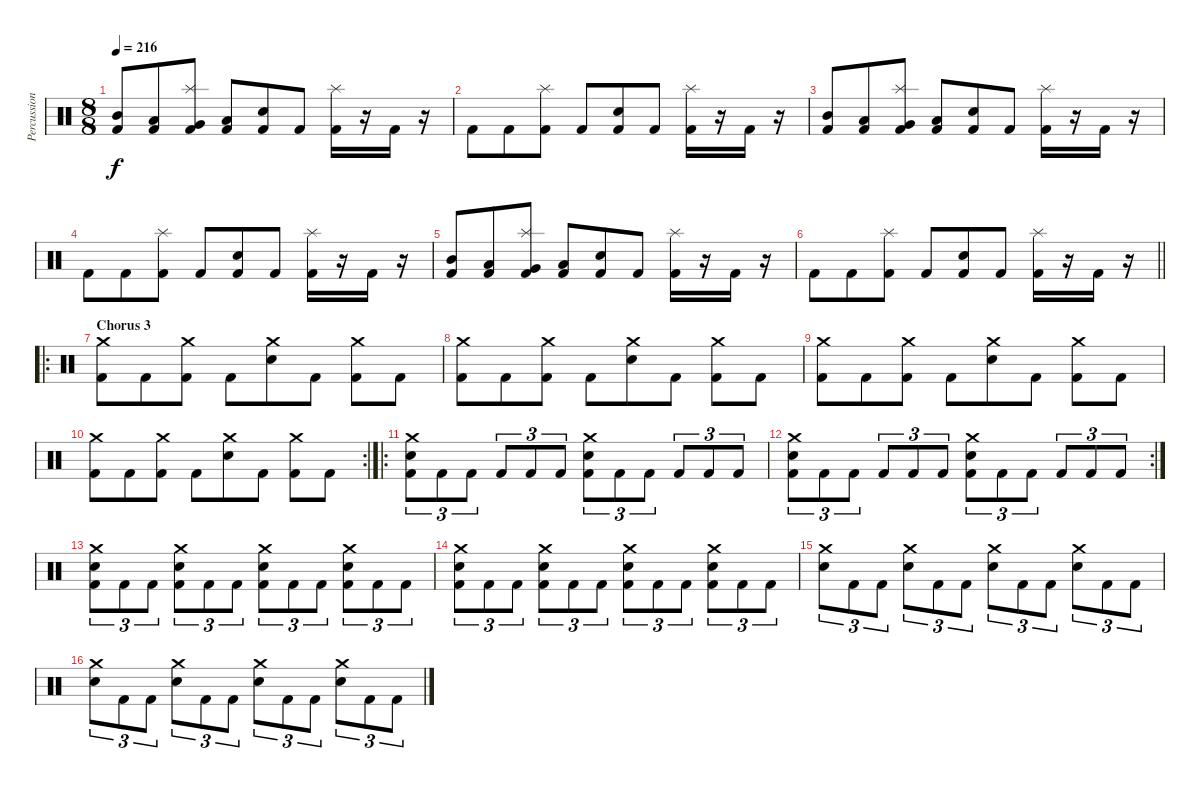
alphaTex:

\track ("Percussions" "Percussion") {instrument percussion}
\staff {score}
\articulation defaults
\ts (8 8)
\tempo 216
\clef neutral
\ks c
("Mid Tom (hit)" "Kick (hit) 2").8{dy f} ("Low Tom (hit)" "Kick (hit) 2").8 ("Splash (hit)" "Very Low Tom (hit)" "Kick (hit) 2").8 ("Low Floor Tom (hit)" "Kick (hit) 2").8 ("Electric Snare (hit)" "Kick (hit) 2").8 "Kick (hit) 2".8 ("Splash (hit)" "Kick (hit) 2").16 r.16 "Kick (hit) 2".16 r.16 |
"Kick (hit) 2".8 "Kick (hit) 2".8 ("Splash (hit)" "Kick (hit) 2").8 "Kick (hit) 2".8 ("Electric Snare (hit)" "Kick (hit) 2").8 "Kick (hit) 2".8 ("Splash (hit)" "Kick (hit) 2").16 r.16 "Kick (hit) 2".16 r.16 |
("Mid Tom (hit)" "Kick (hit) 2").8 ("Low Tom (hit)" "Kick (hit) 2").8 ("Splash (hit)" "Very Low Tom (hit)" "Kick (hit) 2").8 ("Low Floor Tom (hit)" "Kick (hit) 2").8 ("Electric Snare (hit)" "Kick (hit) 2").8 "Kick (hit) 2".8 ("Splash (hit)" "Kick (hit) 2").16 r.16 "Kick (hit) 2".16 r.16 |
"Kick (hit) 2".8 "Kick (hit) 2".8 ("Splash (hit)" "Kick (hit) 2").8 "Kick (hit) 2".8 ("Electric Snare (hit)" "Kick (hit) 2").8 "Kick (hit) 2".8 ("Splash (hit)" "Kick (hit) 2").16 r.16 "Kick (hit) 2".16 r.16 |
("Mid Tom (hit)" "Kick (hit) 2").8 ("Low Tom (hit)" "Kick (hit) 2").8 ("Splash (hit)" "Very Low Tom (hit)" "Kick (hit) 2").8 ("Low Floor Tom (hit)" "Kick (hit) 2").8 ("Electric Snare (hit)" "Kick (hit) 2").8 "Kick (hit) 2".8 ("Splash (hit)" "Kick (hit) 2").16 r.16 "Kick (hit) 2".16 r.16 |
\barLineRight lightlight "Kick (hit) 2".8 "Kick (hit) 2".8
("Splash (hit)" "Kick (hit) 2").8 "Kick (hit) 2".8 ("Electric Snare (hit)" "Kick (hit) 2").8 "Kick (hit) 2".8 ("Splash (hit)" "Kick (hit) 2").16 r.16 "Kick (hit) 2".16 r.16 |
\ro
\section ("" "Chorus 3")
("Crash medium (hit)" "Kick (hit) 2").8 "Kick (hit) 2".8 ("Crash medium (hit)" "Kick (hit) 2").8 "Kick (hit) 2".8 ("Crash medium (hit)" "Electric Snare (hit)").8 "Kick (hit) 2".8 ("Crash medium (hit)" "Kick (hit) 2").8 "Kick (hit) 2".8 |
("Crash medium (hit)" "Kick (hit) 2").8 "Kick (hit) 2".8 ("Crash medium (hit)" "Kick (hit) 2").8 "Kick (hit) 2".8 ("Crash medium (hit)" "Electric Snare (hit)").8 "Kick (hit) 2".8 ("Crash medium (hit)" "Kick (hit) 2").8 "Kick (hit) 2".8 |
("Crash medium (hit)" "Kick (hit) 2").8 "Kick (hit) 2".8 ("Crash medium (hit)" "Kick (hit) 2").8 "Kick (hit) 2".8 ("Crash medium (hit)" "Electric Snare (hit)").8 "Kick (hit) 2".8 ("Crash medium (hit)" "Kick (hit) 2").8 "Kick (hit) 2".8 |
\rc 2
("Crash medium (hit)" "Kick (hit) 2").8 "Kick (hit) 2".8 ("Crash medium (hit)" "Kick (hit) 2").8 "Kick (hit) 2".8 ("Crash medium (hit)" "Electric Snare (hit)").8 "Kick (hit) 2".8 ("Crash medium (hit)" "Kick (hit) 2").8 "Kick (hit) 2".8 |
\ro
("Crash medium (hit)" "Electric Snare (hit)" "Kick (hit) 2").8{tu (3 2)} "Kick (hit) 2".8{tu (3 2)} "Kick (hit) 2".8{tu (3 2)} "Kick (hit) 2".8{tu (3 2)} "Kick (hit) 2".8{tu (3 2)} "Kick (hit) 2".8{tu (3 2)} ("Crash medium (hit)" "Electric Snare (hit)" "Kick (hit) 2").8{tu (3 2)} "Kick (hit) 2".8{tu (3 2)} "Kick (hit) 2".8{tu (3 2)} "Kick (hit) 2".8{tu (3 2)} "Kick (hit) 2".8{tu (3 2)} "Kick (hit) 2".8{tu (3 2)} |
\rc 2
("Crash medium (hit)" "Electric Snare (hit)" "Kick (hit) 2").8{tu (3 2)} "Kick (hit) 2".8{tu (3 2)} "Kick (hit) 2".8{tu (3 2)} "Kick (hit) 2".8{tu (3 2)} "Kick (hit) 2".8{tu (3 2)} "Kick (hit) 2".8{tu (3 2)} ("Crash medium (hit)" "Electric Snare (hit)" "Kick (hit) 2").8{tu (3 2)} "Kick (hit) 2".8{tu (3 2)} "Kick (hit) 2".8{tu (3 2)} "Kick (hit) 2".8{tu (3 2)} "Kick (hit) 2".8{tu (3 2)} "Kick (hit) 2".8{tu (3 2)} |
("Crash medium (hit)" "Electric Snare (hit)" "Kick (hit) 2").8{tu (3 2)} "Kick (hit) 2".8{tu (3 2)} "Kick (hit) 2".8{tu (3 2)} ("Crash medium (hit)" "Electric Snare (hit)" "Kick (hit) 2").8{tu (3 2)} "Kick (hit) 2".8{tu (3 2)} "Kick (hit) 2".8{tu (3 2)} ("Crash medium (hit)" "Electric Snare (hit)" "Kick (hit) 2").8{tu (3 2)} "Kick (hit) 2".8{tu (3 2)} "Kick (hit) 2".8{tu (3 2)} ("Crash medium (hit)" "Electric Snare (hit)" "Kick (hit) 2").8{tu (3 2)} "Kick (hit) 2".8{tu (3 2)} "Kick (hit) 2".8{tu (3 2)} |
("Crash medium (hit)" "Electric Snare (hit)" "Kick (hit) 2").8{tu (3 2)} "Kick (hit) 2".8{tu (3 2)} "Kick (hit) 2".8{tu (3 2)} ("Crash medium (hit)" "Electric Snare (hit)" "Kick (hit) 2").8{tu (3 2)} "Kick (hit) 2".8{tu (3 2)} "Kick (hit) 2".8{tu (3 2)} ("Crash medium (hit)" "Electric Snare (hit)" "Kick (hit) 2").8{tu (3 2)} "Kick (hit) 2".8{tu (3 2)} "Kick (hit) 2".8{tu (3 2)} ("Crash medium (hit)" "Electric Snare (hit)" "Kick (hit) 2").8{tu (3 2)} "Kick (hit) 2".8{tu (3 2)} "Kick (hit) 2".8{tu (3 2)} |
("Crash medium (hit)" "Electric Snare (hit)").8{tu (3 2)} "Kick (hit) 2".8{tu (3 2)} "Kick (hit) 2".8{tu (3 2)} ("Crash medium (hit)" "Electric Snare (hit)").8{tu (3 2)} "Kick (hit) 2".8{tu (3 2)} "Kick (hit) 2".8{tu (3 2)} ("Crash medium (hit)" "Electric Snare (hit)").8{tu (3 2)} "Kick (hit) 2".8{tu (3 2)} "Kick (hit) 2".8{tu (3 2)} ("Crash medium (hit)" "Electric Snare (hit)").8{tu (3 2)} "Kick (hit) 2".8{tu (3 2)} "Kick (hit) 2".8{tu (3 2)} |
("Crash medium (hit)" "Electric Snare (hit)").8{tu (3 2)} "Kick (hit) 2".8{tu (3 2)} "Kick (hit) 2".8{tu (3 2)} ("Crash medium (hit)" "Electric Snare (hit)").8{tu (3 2)} "Kick (hit) 2".8{tu (3 2)} "Kick (hit) 2".8{tu (3 2)} ("Crash medium (hit)" "Electric Snare (hit)").8{tu (3 2)} "Kick (hit) 2".8{tu (3 2)} "Kick (hit) 2".8{tu (3 2)} ("Crash medium (hit)" "Electric Snare (hit)").8{tu (3 2)} "Kick (hit) 2".8{tu (3 2)} "Kick (hit) 2".8{tu (3 2)}
